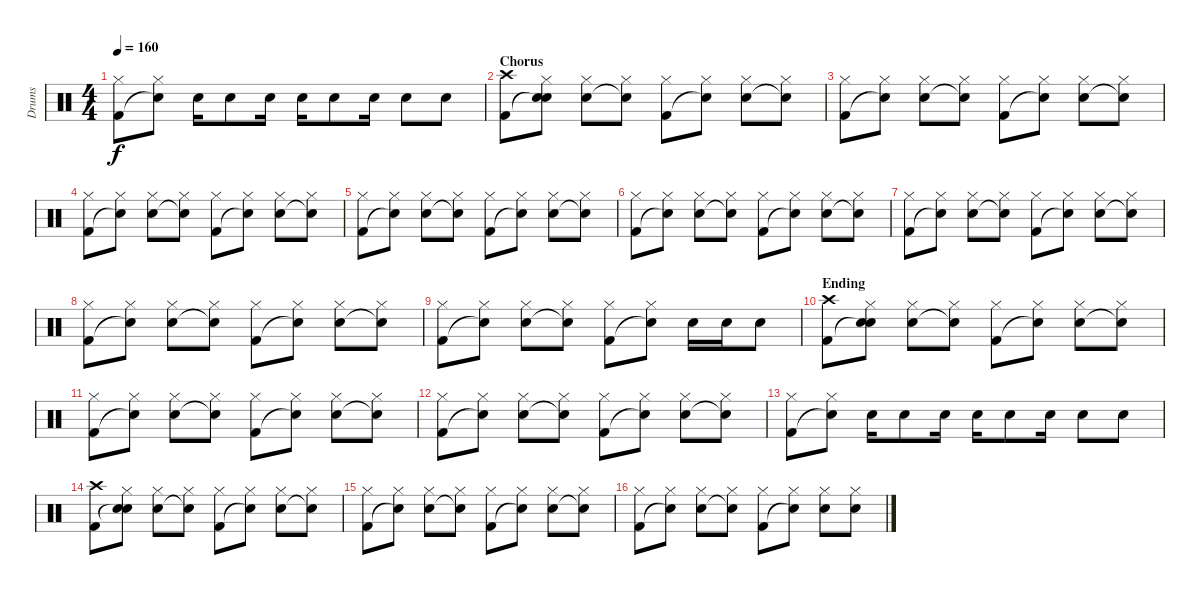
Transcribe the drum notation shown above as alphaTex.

\track ("Drums" "Drums") {instrument percussion}
\staff {score}
\articulation defaults
\ts (4 4)
\tempo 160
\clef neutral
\ks c
("Kick (hit) 2" "Hi-Hat (closed)").8{dy f} ("Snare (hit)"{t} "Hi-Hat (closed)").8 "Snare (hit) 2".16 "Snare (hit) 2".8 "Snare (hit) 2".16 "Snare (hit) 2".16 "Snare (hit) 2".8 "Snare (hit) 2".16 "Snare (hit) 2".8 "Snare (hit) 2".8 |
\section ("" "Chorus")
("Kick (hit) 2" "Crash high (hit)").8 ("Snare (hit)"{t} "Hi-Hat (closed)" "Snare (hit)").8 ("Snare (hit) 2" "Hi-Hat (closed)").8 ("Snare (hit)"{t} "Hi-Hat (closed)").8 ("Kick (hit) 2" "Hi-Hat (closed)").8 ("Snare (hit)"{t} "Hi-Hat (closed)").8 ("Snare (hit) 2" "Hi-Hat (closed)").8 ("Snare (hit)"{t} "Hi-Hat (closed)").8 |
("Kick (hit) 2" "Hi-Hat (closed)").8 ("Snare (hit)"{t} "Hi-Hat (closed)").8 ("Snare (hit) 2" "Hi-Hat (closed)").8 ("Snare (hit)"{t} "Hi-Hat (closed)").8 ("Kick (hit) 2" "Hi-Hat (closed)").8 ("Snare (hit)"{t} "Hi-Hat (closed)").8 ("Snare (hit) 2" "Hi-Hat (closed)").8 ("Snare (hit)"{t} "Hi-Hat (closed)").8 |
("Kick (hit) 2" "Hi-Hat (closed)").8 ("Snare (hit)"{t} "Hi-Hat (closed)").8 ("Snare (hit) 2" "Hi-Hat (closed)").8 ("Snare (hit)"{t} "Hi-Hat (closed)").8 ("Kick (hit) 2" "Hi-Hat (closed)").8 ("Snare (hit)"{t} "Hi-Hat (closed)").8 ("Snare (hit) 2" "Hi-Hat (closed)").8 ("Snare (hit)"{t} "Hi-Hat (closed)").8 |
("Kick (hit) 2" "Hi-Hat (closed)").8 ("Snare (hit)"{t} "Hi-Hat (closed)").8 ("Snare (hit) 2" "Hi-Hat (closed)").8 ("Snare (hit)"{t} "Hi-Hat (closed)").8 ("Kick (hit) 2" "Hi-Hat (closed)").8 ("Snare (hit)"{t} "Hi-Hat (closed)").8 ("Snare (hit) 2" "Hi-Hat (closed)").8 ("Snare (hit)"{t} "Hi-Hat (closed)").8 |
("Kick (hit) 2" "Hi-Hat (closed)").8 ("Snare (hit)"{t} "Hi-Hat (closed)").8 ("Snare (hit) 2" "Hi-Hat (closed)").8 ("Snare (hit)"{t} "Hi-Hat (closed)").8 ("Kick (hit) 2" "Hi-Hat (closed)").8 ("Snare (hit)"{t} "Hi-Hat (closed)").8 ("Snare (hit) 2" "Hi-Hat (closed)").8 ("Snare (hit)"{t} "Hi-Hat (closed)").8 |
("Kick (hit) 2" "Hi-Hat (closed)").8 ("Snare (hit)"{t} "Hi-Hat (closed)").8 ("Snare (hit) 2" "Hi-Hat (closed)").8 ("Snare (hit)"{t} "Hi-Hat (closed)").8 ("Kick (hit) 2" "Hi-Hat (closed)").8 ("Snare (hit)"{t} "Hi-Hat (closed)").8 ("Snare (hit) 2" "Hi-Hat (closed)").8 ("Snare (hit)"{t} "Hi-Hat (closed)").8 |
("Kick (hit) 2" "Hi-Hat (closed)").8 ("Snare (hit)"{t} "Hi-Hat (closed)").8 ("Snare (hit) 2" "Hi-Hat (closed)").8 ("Snare (hit)"{t} "Hi-Hat (closed)").8 ("Kick (hit) 2" "Hi-Hat (closed)").8 ("Snare (hit)"{t} "Hi-Hat (closed)").8 ("Snare (hit) 2" "Hi-Hat (closed)").8 ("Snare (hit)"{t} "Hi-Hat (closed)").8 |
("Kick (hit) 2" "Hi-Hat (closed)").8 ("Snare (hit)"{t} "Hi-Hat (closed)").8 ("Snare (hit) 2" "Hi-Hat (closed)").8 ("Snare (hit)"{t} "Hi-Hat (closed)").8 ("Kick (hit) 2" "Hi-Hat (closed)").8 ("Snare (hit)"{t} "Hi-Hat (closed)").8 "Snare (hit) 2".16 "Snare (hit) 2".16 "Snare (hit) 2".8 |
\section ("" "Ending")
("Kick (hit) 2" "Crash high (hit)").8 ("Snare (hit)"{t} "Hi-Hat (closed)" "Snare (hit)").8 ("Snare (hit) 2" "Hi-Hat (closed)").8 ("Snare (hit)"{t} "Hi-Hat (closed)").8 ("Kick (hit) 2" "Hi-Hat (closed)").8 ("Snare (hit)"{t} "Hi-Hat (closed)").8 ("Snare (hit) 2" "Hi-Hat (closed)").8 ("Snare (hit)"{t} "Hi-Hat (closed)").8 |
("Kick (hit) 2" "Hi-Hat (closed)").8 ("Snare (hit)"{t} "Hi-Hat (closed)").8 ("Snare (hit) 2" "Hi-Hat (closed)").8 ("Snare (hit)"{t} "Hi-Hat (closed)").8 ("Kick (hit) 2" "Hi-Hat (closed)").8 ("Snare (hit)"{t} "Hi-Hat (closed)").8 ("Snare (hit) 2" "Hi-Hat (closed)").8 ("Snare (hit)"{t} "Hi-Hat (closed)").8 |
("Kick (hit) 2" "Hi-Hat (closed)").8 ("Snare (hit)"{t} "Hi-Hat (closed)").8 ("Snare (hit) 2" "Hi-Hat (closed)").8 ("Snare (hit)"{t} "Hi-Hat (closed)").8 ("Kick (hit) 2" "Hi-Hat (closed)").8 ("Snare (hit)"{t} "Hi-Hat (closed)").8 ("Snare (hit) 2" "Hi-Hat (closed)").8 ("Snare (hit)"{t} "Hi-Hat (closed)").8 |
("Kick (hit) 2" "Hi-Hat (closed)").8 ("Snare (hit)"{t} "Hi-Hat (closed)").8 "Snare (hit) 2".16 "Snare (hit) 2".8 "Snare (hit) 2".16 "Snare (hit) 2".16 "Snare (hit) 2".8 "Snare (hit) 2".16 "Snare (hit) 2".8 "Snare (hit) 2".8 |
("Kick (hit) 2" "Crash high (hit)").8 ("Snare (hit)"{t} "Hi-Hat (closed)" "Snare (hit)").8 ("Snare (hit) 2" "Hi-Hat (closed)").8 ("Snare (hit)"{t} "Hi-Hat (closed)").8 ("Kick (hit) 2" "Hi-Hat (closed)").8 ("Snare (hit)"{t} "Hi-Hat (closed)").8 ("Snare (hit) 2" "Hi-Hat (closed)").8 ("Snare (hit)"{t} "Hi-Hat (closed)").8 |
("Kick (hit) 2" "Hi-Hat (closed)").8 ("Snare (hit)"{t} "Hi-Hat (closed)").8 ("Snare (hit) 2" "Hi-Hat (closed)").8 ("Snare (hit)"{t} "Hi-Hat (closed)").8 ("Kick (hit) 2" "Hi-Hat (closed)").8 ("Snare (hit)"{t} "Hi-Hat (closed)").8 ("Snare (hit) 2" "Hi-Hat (closed)").8 ("Snare (hit)"{t} "Hi-Hat (closed)").8 |
("Kick (hit) 2" "Hi-Hat (closed)").8 ("Snare (hit)"{t} "Hi-Hat (closed)").8 ("Snare (hit) 2" "Hi-Hat (closed)").8 ("Snare (hit)"{t} "Hi-Hat (closed)").8 ("Kick (hit) 2" "Hi-Hat (closed)").8 ("Snare (hit)"{t} "Hi-Hat (closed)").8 ("Snare (hit) 2" "Hi-Hat (closed)").8 ("Snare (hit) 2" "Hi-Hat (closed)").8
